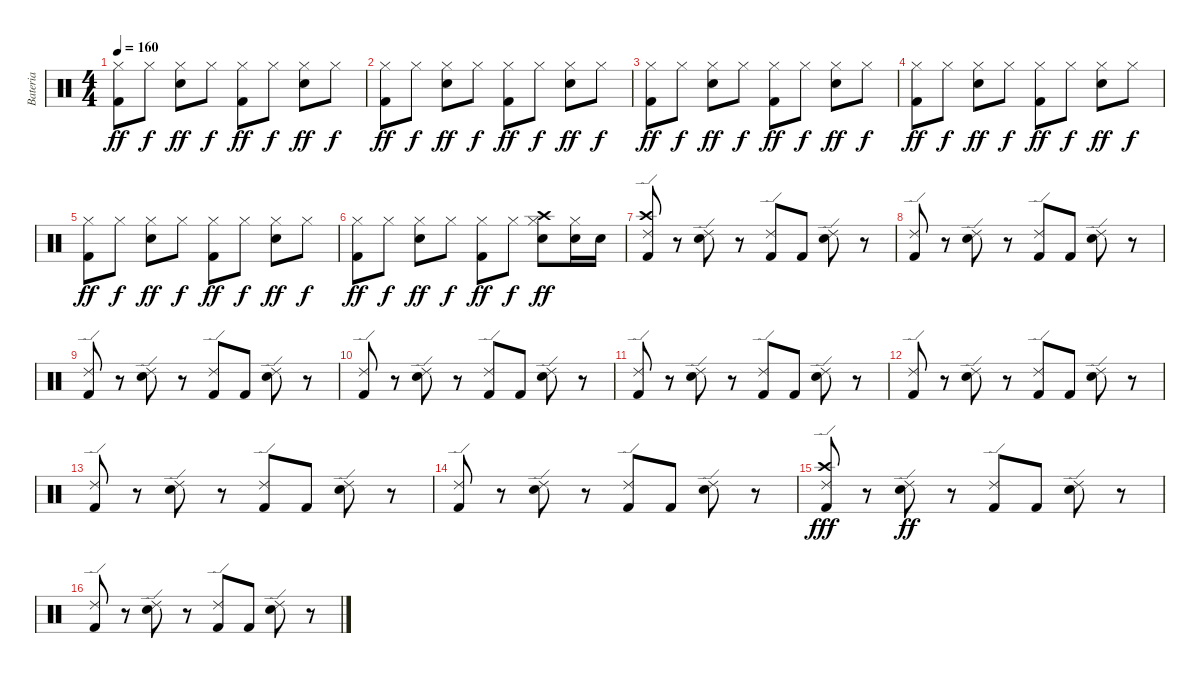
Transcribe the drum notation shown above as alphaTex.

\track ("Bateria" "Bateria") {instrument percussion}
\staff {score}
\articulation defaults
\ts (4 4)
\tempo 160
\clef neutral
\ks c
("Kick (hit) 2" "Hi-Hat (closed)").8{dy ff} "Hi-Hat (closed)".8{dy f} ("Hi-Hat (closed)" "Snare (hit) 2").8{dy ff} "Hi-Hat (closed)".8{dy f} ("Kick (hit) 2" "Hi-Hat (closed)").8{dy ff} "Hi-Hat (closed)".8{dy f} ("Hi-Hat (closed)" "Snare (hit) 2").8{dy ff} "Hi-Hat (closed)".8{dy f} |
("Kick (hit) 2" "Hi-Hat (closed)").8{dy ff} "Hi-Hat (closed)".8{dy f} ("Hi-Hat (closed)" "Snare (hit) 2").8{dy ff} "Hi-Hat (closed)".8{dy f} ("Kick (hit) 2" "Hi-Hat (closed)").8{dy ff} "Hi-Hat (closed)".8{dy f} ("Hi-Hat (closed)" "Snare (hit) 2").8{dy ff} "Hi-Hat (closed)".8{dy f} |
("Kick (hit) 2" "Hi-Hat (closed)").8{dy ff} "Hi-Hat (closed)".8{dy f} ("Hi-Hat (closed)" "Snare (hit) 2").8{dy ff} "Hi-Hat (closed)".8{dy f} ("Kick (hit) 2" "Hi-Hat (closed)").8{dy ff} "Hi-Hat (closed)".8{dy f} ("Hi-Hat (closed)" "Snare (hit) 2").8{dy ff} "Hi-Hat (closed)".8{dy f} |
("Kick (hit) 2" "Hi-Hat (closed)").8{dy ff} "Hi-Hat (closed)".8{dy f} ("Hi-Hat (closed)" "Snare (hit) 2").8{dy ff} "Hi-Hat (closed)".8{dy f} ("Kick (hit) 2" "Hi-Hat (closed)").8{dy ff} "Hi-Hat (closed)".8{dy f} ("Hi-Hat (closed)" "Snare (hit) 2").8{dy ff} "Hi-Hat (closed)".8{dy f} |
("Kick (hit) 2" "Hi-Hat (closed)").8{dy ff} "Hi-Hat (closed)".8{dy f} ("Hi-Hat (closed)" "Snare (hit) 2").8{dy ff} "Hi-Hat (closed)".8{dy f} ("Kick (hit) 2" "Hi-Hat (closed)").8{dy ff} "Hi-Hat (closed)".8{dy f} ("Hi-Hat (closed)" "Snare (hit) 2").8{dy ff} "Hi-Hat (closed)".8{dy f} |
("Kick (hit) 2" "Hi-Hat (closed)").8{dy ff} "Hi-Hat (closed)".8{dy f} ("Hi-Hat (closed)" "Snare (hit) 2").8{dy ff} "Hi-Hat (closed)".8{dy f} ("Kick (hit) 2" "Hi-Hat (closed)").8{dy ff} "Hi-Hat (closed)".8{dy f} ("Crash high (hit)" "Hi-Hat (closed)" "Snare (hit) 2").8{dy ff} ("Snare (hit) 2" "Hi-Hat (closed)").16 "Snare (hit) 2".16 |
("Crash high (hit)" "Ride (edge) 2" "Kick (hit) 2").8 r.8 ("Ride (edge) 2" "Snare (hit) 2").8 r.8 ("Ride (edge) 2" "Kick (hit) 2").8 "Kick (hit) 2".8 ("Ride (edge) 2" "Snare (hit) 2").8 r.8 |
("Ride (edge) 2" "Kick (hit) 2").8 r.8 ("Ride (edge) 2" "Snare (hit) 2").8 r.8 ("Ride (edge) 2" "Kick (hit) 2").8 "Kick (hit) 2".8 ("Ride (edge) 2" "Snare (hit) 2").8 r.8 |
("Ride (edge) 2" "Kick (hit) 2").8 r.8 ("Ride (edge) 2" "Snare (hit) 2").8 r.8 ("Ride (edge) 2" "Kick (hit) 2").8 "Kick (hit) 2".8 ("Ride (edge) 2" "Snare (hit) 2").8 r.8 |
("Ride (edge) 2" "Kick (hit) 2").8 r.8 ("Ride (edge) 2" "Snare (hit) 2").8 r.8 ("Ride (edge) 2" "Kick (hit) 2").8 "Kick (hit) 2".8 ("Ride (edge) 2" "Snare (hit) 2").8 r.8 |
("Ride (edge) 2" "Kick (hit) 2").8 r.8 ("Ride (edge) 2" "Snare (hit) 2").8 r.8 ("Ride (edge) 2" "Kick (hit) 2").8 "Kick (hit) 2".8 ("Ride (edge) 2" "Snare (hit) 2").8 r.8 |
("Ride (edge) 2" "Kick (hit) 2").8 r.8 ("Ride (edge) 2" "Snare (hit) 2").8 r.8 ("Ride (edge) 2" "Kick (hit) 2").8 "Kick (hit) 2".8 ("Ride (edge) 2" "Snare (hit) 2").8 r.8 |
("Ride (edge) 2" "Kick (hit) 2").8 r.8 ("Ride (edge) 2" "Snare (hit) 2").8 r.8 ("Ride (edge) 2" "Kick (hit) 2").8 "Kick (hit) 2".8 ("Ride (edge) 2" "Snare (hit) 2").8 r.8 |
("Ride (edge) 2" "Kick (hit) 2").8 r.8 ("Ride (edge) 2" "Snare (hit) 2").8 r.8 ("Ride (edge) 2" "Kick (hit) 2").8 "Kick (hit) 2".8 ("Ride (edge) 2" "Snare (hit) 2").8 r.8 |
("Kick (hit) 2" "Ride (edge) 2" "Crash high (hit)").8{dy fff} r.8 ("Ride (edge) 2" "Snare (hit) 2").8{dy ff} r.8 ("Ride (edge) 2" "Kick (hit) 2").8 "Kick (hit) 2".8 ("Ride (edge) 2" "Snare (hit) 2").8 r.8 |
("Ride (edge) 2" "Kick (hit) 2").8 r.8 ("Ride (edge) 2" "Snare (hit) 2").8 r.8 ("Ride (edge) 2" "Kick (hit) 2").8 "Kick (hit) 2".8 ("Ride (edge) 2" "Snare (hit) 2").8 r.8
